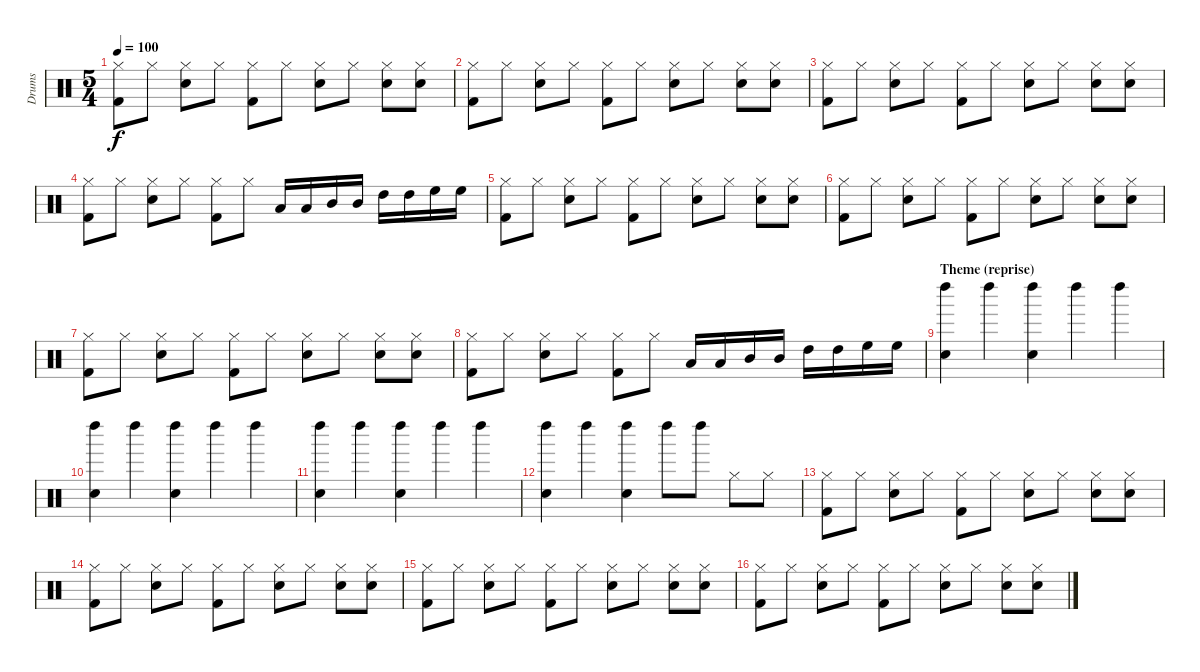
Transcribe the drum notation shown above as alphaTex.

\track ("Drums" "Drums") {instrument percussion}
\staff {score}
\articulation defaults
\ts (5 4)
\tempo 100
\clef neutral
\ks c
("Kick (hit) 2" "Hi-Hat (closed)").8{dy f} "Hi-Hat (closed)".8 ("Snare (hit) 2" "Hi-Hat (closed)").8 "Hi-Hat (closed)".8 ("Kick (hit) 2" "Hi-Hat (closed)").8 "Hi-Hat (closed)".8 ("Snare (hit) 2" "Hi-Hat (closed)").8 "Hi-Hat (closed)".8 ("Snare (hit) 2" "Hi-Hat (closed)").8 ("Snare (hit) 2" "Hi-Hat (closed)").8 |
("Kick (hit) 2" "Hi-Hat (closed)").8 "Hi-Hat (closed)".8 ("Snare (hit) 2" "Hi-Hat (closed)").8 "Hi-Hat (closed)".8 ("Kick (hit) 2" "Hi-Hat (closed)").8 "Hi-Hat (closed)".8 ("Snare (hit) 2" "Hi-Hat (closed)").8 "Hi-Hat (closed)".8 ("Snare (hit) 2" "Hi-Hat (closed)").8 ("Snare (hit) 2" "Hi-Hat (closed)").8 |
("Kick (hit) 2" "Hi-Hat (closed)").8 "Hi-Hat (closed)".8 ("Snare (hit) 2" "Hi-Hat (closed)").8 "Hi-Hat (closed)".8 ("Kick (hit) 2" "Hi-Hat (closed)").8 "Hi-Hat (closed)".8 ("Snare (hit) 2" "Hi-Hat (closed)").8 "Hi-Hat (closed)".8 ("Snare (hit) 2" "Hi-Hat (closed)").8 ("Snare (hit) 2" "Hi-Hat (closed)").8 |
("Kick (hit) 2" "Hi-Hat (closed)").8 "Hi-Hat (closed)".8 ("Snare (hit) 2" "Hi-Hat (closed)").8 "Hi-Hat (closed)".8 ("Kick (hit) 2" "Hi-Hat (closed)").8 "Hi-Hat (closed)".8 "Low Tom (hit)".16 "Low Tom (hit)".16 "Mid Tom (hit)".16 "Mid Tom (hit)".16 "High Tom (hit)".16 "High Tom (hit)".16 "High Floor Tom (hit)".16 "High Floor Tom (hit)".16 |
("Kick (hit) 2" "Hi-Hat (closed)").8 "Hi-Hat (closed)".8 ("Snare (hit) 2" "Hi-Hat (closed)").8 "Hi-Hat (closed)".8 ("Kick (hit) 2" "Hi-Hat (closed)").8 "Hi-Hat (closed)".8 ("Snare (hit) 2" "Hi-Hat (closed)").8 "Hi-Hat (closed)".8 ("Snare (hit) 2" "Hi-Hat (closed)").8 ("Snare (hit) 2" "Hi-Hat (closed)").8 |
("Kick (hit) 2" "Hi-Hat (closed)").8 "Hi-Hat (closed)".8 ("Snare (hit) 2" "Hi-Hat (closed)").8 "Hi-Hat (closed)".8 ("Kick (hit) 2" "Hi-Hat (closed)").8 "Hi-Hat (closed)".8 ("Snare (hit) 2" "Hi-Hat (closed)").8 "Hi-Hat (closed)".8 ("Snare (hit) 2" "Hi-Hat (closed)").8 ("Snare (hit) 2" "Hi-Hat (closed)").8 |
("Kick (hit) 2" "Hi-Hat (closed)").8 "Hi-Hat (closed)".8 ("Snare (hit) 2" "Hi-Hat (closed)").8 "Hi-Hat (closed)".8 ("Kick (hit) 2" "Hi-Hat (closed)").8 "Hi-Hat (closed)".8 ("Snare (hit) 2" "Hi-Hat (closed)").8 "Hi-Hat (closed)".8 ("Snare (hit) 2" "Hi-Hat (closed)").8 ("Snare (hit) 2" "Hi-Hat (closed)").8 |
("Kick (hit) 2" "Hi-Hat (closed)").8 "Hi-Hat (closed)".8 ("Snare (hit) 2" "Hi-Hat (closed)").8 "Hi-Hat (closed)".8 ("Kick (hit) 2" "Hi-Hat (closed)").8 "Hi-Hat (closed)".8 "Low Tom (hit)".16 "Low Tom (hit)".16 "Mid Tom (hit)".16 "Mid Tom (hit)".16 "High Tom (hit)".16 "High Tom (hit)".16 "High Floor Tom (hit)".16 "High Floor Tom (hit)".16 |
\section ("" "Theme (reprise)")
("Hand Clap (hit)" "Left Maraca (hit)").4 "Left Maraca (hit)".4 ("Hand Clap (hit)" "Left Maraca (hit)").4 "Left Maraca (hit)".4 "Left Maraca (hit)".4 |
("Hand Clap (hit)" "Left Maraca (hit)").4 "Left Maraca (hit)".4 ("Hand Clap (hit)" "Left Maraca (hit)").4 "Left Maraca (hit)".4 "Left Maraca (hit)".4 |
("Hand Clap (hit)" "Left Maraca (hit)").4 "Left Maraca (hit)".4 ("Hand Clap (hit)" "Left Maraca (hit)").4 "Left Maraca (hit)".4 "Left Maraca (hit)".4 |
("Hand Clap (hit)" "Left Maraca (hit)").4 "Left Maraca (hit)".4 ("Hand Clap (hit)" "Left Maraca (hit)").4 "Left Maraca (hit)".8 "Left Maraca (hit)".8 "Hi-Hat (closed)".8 "Hi-Hat (closed)".8 |
("Kick (hit) 2" "Hi-Hat (closed)").8 "Hi-Hat (closed)".8 ("Snare (hit) 2" "Hi-Hat (closed)").8 "Hi-Hat (closed)".8 ("Kick (hit) 2" "Hi-Hat (closed)").8 "Hi-Hat (closed)".8 ("Snare (hit) 2" "Hi-Hat (closed)").8 "Hi-Hat (closed)".8 ("Snare (hit) 2" "Hi-Hat (closed)").8 ("Snare (hit) 2" "Hi-Hat (closed)").8 |
("Kick (hit) 2" "Hi-Hat (closed)").8 "Hi-Hat (closed)".8 ("Snare (hit) 2" "Hi-Hat (closed)").8 "Hi-Hat (closed)".8 ("Kick (hit) 2" "Hi-Hat (closed)").8 "Hi-Hat (closed)".8 ("Snare (hit) 2" "Hi-Hat (closed)").8 "Hi-Hat (closed)".8 ("Snare (hit) 2" "Hi-Hat (closed)").8 ("Snare (hit) 2" "Hi-Hat (closed)").8 |
("Kick (hit) 2" "Hi-Hat (closed)").8 "Hi-Hat (closed)".8 ("Snare (hit) 2" "Hi-Hat (closed)").8 "Hi-Hat (closed)".8 ("Kick (hit) 2" "Hi-Hat (closed)").8 "Hi-Hat (closed)".8 ("Snare (hit) 2" "Hi-Hat (closed)").8 "Hi-Hat (closed)".8 ("Snare (hit) 2" "Hi-Hat (closed)").8 ("Snare (hit) 2" "Hi-Hat (closed)").8 |
("Kick (hit) 2" "Hi-Hat (closed)").8 "Hi-Hat (closed)".8 ("Snare (hit) 2" "Hi-Hat (closed)").8 "Hi-Hat (closed)".8 ("Kick (hit) 2" "Hi-Hat (closed)").8 "Hi-Hat (closed)".8 ("Snare (hit) 2" "Hi-Hat (closed)").8 "Hi-Hat (closed)".8 ("Snare (hit) 2" "Hi-Hat (closed)").8 ("Snare (hit) 2" "Hi-Hat (closed)").8
